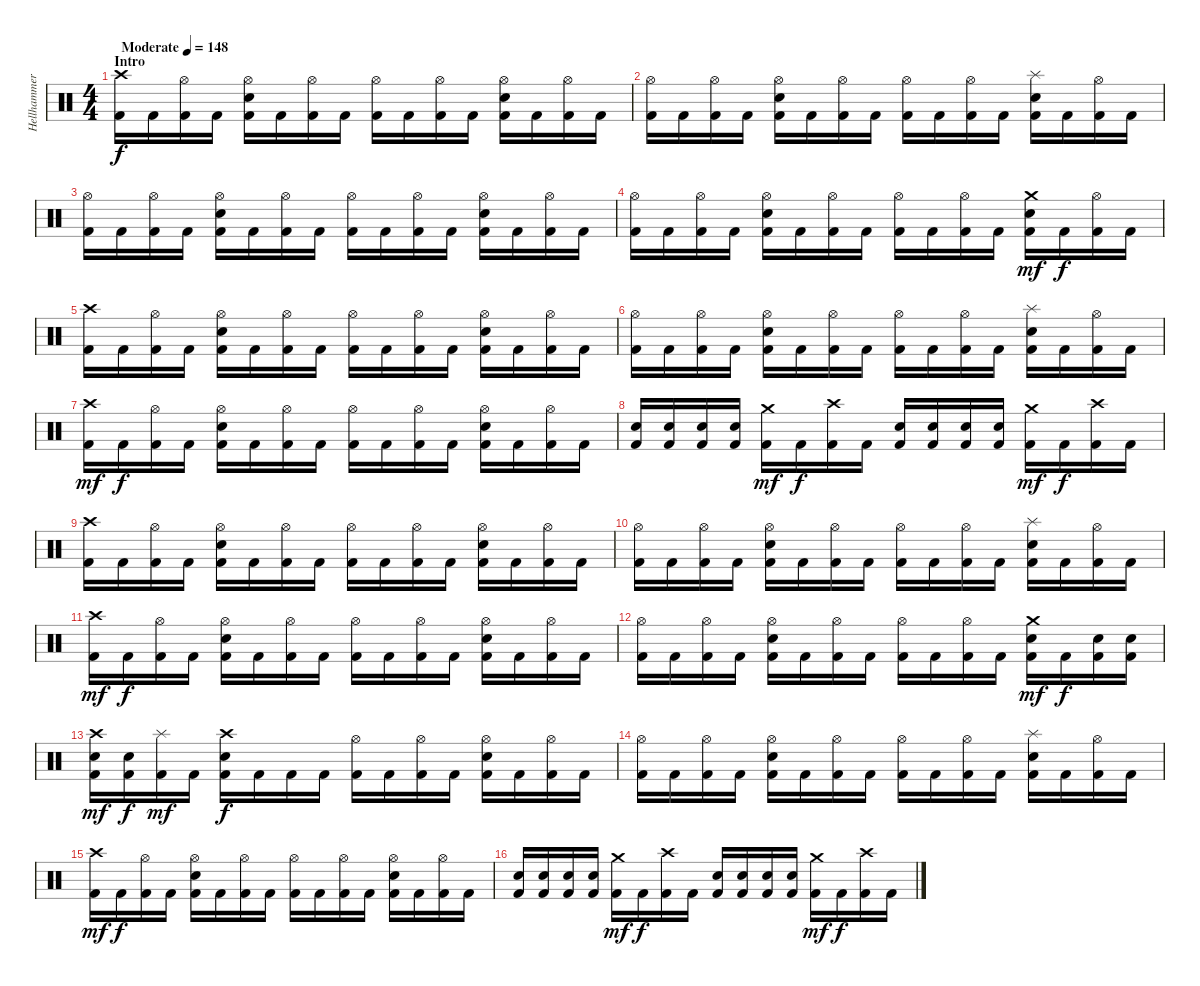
\track ("Hellhammer" "Hellhammer") {instrument percussion}
\staff {score}
\articulation defaults
\ts (4 4)
\section ("" "Intro")
\tempo (148 "Moderate")
\clef neutral
\ks c
("Crash high (hit)" "Kick (hit) 2").16{dy f} "Kick (hit) 2".16 ("Hi-Hat (open)" "Kick (hit) 2").16 "Kick (hit) 2".16 ("Hi-Hat (open)" "Snare (hit) 2" "Kick (hit) 2").16 "Kick (hit) 2".16 ("Hi-Hat (open)" "Kick (hit) 2").16 "Kick (hit) 2".16 ("Hi-Hat (open)" "Kick (hit) 2").16 "Kick (hit) 2".16 ("Hi-Hat (open)" "Kick (hit) 2").16 "Kick (hit) 2".16 ("Hi-Hat (open)" "Snare (hit) 2" "Kick (hit) 2").16 "Kick (hit) 2".16 ("Hi-Hat (open)" "Kick (hit) 2").16 "Kick (hit) 2".16 |
("Hi-Hat (open)" "Kick (hit) 2").16 "Kick (hit) 2".16 ("Hi-Hat (open)" "Kick (hit) 2").16 "Kick (hit) 2".16 ("Hi-Hat (open)" "Snare (hit) 2" "Kick (hit) 2").16 "Kick (hit) 2".16 ("Hi-Hat (open)" "Kick (hit) 2").16 "Kick (hit) 2".16 ("Hi-Hat (open)" "Kick (hit) 2").16 "Kick (hit) 2".16 ("Hi-Hat (open)" "Kick (hit) 2").16 "Kick (hit) 2".16 ("Splash (hit)" "Snare (hit) 2" "Kick (hit) 2").16 "Kick (hit) 2".16 ("Hi-Hat (open)" "Kick (hit) 2").16 "Kick (hit) 2".16 |
("Hi-Hat (open)" "Kick (hit) 2").16 "Kick (hit) 2".16 ("Hi-Hat (open)" "Kick (hit) 2").16 "Kick (hit) 2".16 ("Hi-Hat (open)" "Snare (hit) 2" "Kick (hit) 2").16 "Kick (hit) 2".16 ("Hi-Hat (open)" "Kick (hit) 2").16 "Kick (hit) 2".16 ("Hi-Hat (open)" "Kick (hit) 2").16 "Kick (hit) 2".16 ("Hi-Hat (open)" "Kick (hit) 2").16 "Kick (hit) 2".16 ("Hi-Hat (open)" "Snare (hit) 2" "Kick (hit) 2").16 "Kick (hit) 2".16 ("Hi-Hat (open)" "Kick (hit) 2").16 "Kick (hit) 2".16 |
("Hi-Hat (open)" "Kick (hit) 2").16 "Kick (hit) 2".16 ("Hi-Hat (open)" "Kick (hit) 2").16 "Kick (hit) 2".16 ("Hi-Hat (open)" "Snare (hit) 2" "Kick (hit) 2").16 "Kick (hit) 2".16 ("Hi-Hat (open)" "Kick (hit) 2").16 "Kick (hit) 2".16 ("Hi-Hat (open)" "Kick (hit) 2").16 "Kick (hit) 2".16 ("Hi-Hat (open)" "Kick (hit) 2").16 "Kick (hit) 2".16 ("Crash medium (hit)" "Snare (hit) 2" "Kick (hit) 2").16{dy mf} "Kick (hit) 2".16{dy f} ("Hi-Hat (open)" "Kick (hit) 2").16 "Kick (hit) 2".16 |
("Crash high (hit)" "Kick (hit) 2").16 "Kick (hit) 2".16 ("Hi-Hat (open)" "Kick (hit) 2").16 "Kick (hit) 2".16 ("Hi-Hat (open)" "Snare (hit) 2" "Kick (hit) 2").16 "Kick (hit) 2".16 ("Hi-Hat (open)" "Kick (hit) 2").16 "Kick (hit) 2".16 ("Hi-Hat (open)" "Kick (hit) 2").16 "Kick (hit) 2".16 ("Hi-Hat (open)" "Kick (hit) 2").16 "Kick (hit) 2".16 ("Hi-Hat (open)" "Snare (hit) 2" "Kick (hit) 2").16 "Kick (hit) 2".16 ("Hi-Hat (open)" "Kick (hit) 2").16 "Kick (hit) 2".16 |
("Hi-Hat (open)" "Kick (hit) 2").16 "Kick (hit) 2".16 ("Hi-Hat (open)" "Kick (hit) 2").16 "Kick (hit) 2".16 ("Hi-Hat (open)" "Snare (hit) 2" "Kick (hit) 2").16 "Kick (hit) 2".16 ("Hi-Hat (open)" "Kick (hit) 2").16 "Kick (hit) 2".16 ("Hi-Hat (open)" "Kick (hit) 2").16 "Kick (hit) 2".16 ("Hi-Hat (open)" "Kick (hit) 2").16 "Kick (hit) 2".16 ("Splash (hit)" "Snare (hit) 2" "Kick (hit) 2").16 "Kick (hit) 2".16 ("Hi-Hat (open)" "Kick (hit) 2").16 "Kick (hit) 2".16 |
("Crash high (hit)" "Kick (hit) 2").16{dy mf} "Kick (hit) 2".16{dy f} ("Hi-Hat (open)" "Kick (hit) 2").16 "Kick (hit) 2".16 ("Hi-Hat (open)" "Snare (hit) 2" "Kick (hit) 2").16 "Kick (hit) 2".16 ("Hi-Hat (open)" "Kick (hit) 2").16 "Kick (hit) 2".16 ("Hi-Hat (open)" "Kick (hit) 2").16 "Kick (hit) 2".16 ("Hi-Hat (open)" "Kick (hit) 2").16 "Kick (hit) 2".16 ("Hi-Hat (open)" "Snare (hit) 2" "Kick (hit) 2").16 "Kick (hit) 2".16 ("Hi-Hat (open)" "Kick (hit) 2").16 "Kick (hit) 2".16 |
("Snare (hit) 2" "Kick (hit) 2").16 ("Snare (hit) 2" "Kick (hit) 2").16 ("Snare (hit) 2" "Kick (hit) 2").16 ("Snare (hit) 2" "Kick (hit) 2").16 ("Crash medium (hit)" "Kick (hit) 2").16{dy mf} "Kick (hit) 2".16{dy f} ("Crash high (hit)" "Kick (hit) 2").16 "Kick (hit) 2".16 ("Snare (hit) 2" "Kick (hit) 2").16 ("Snare (hit) 2" "Kick (hit) 2").16 ("Snare (hit) 2" "Kick (hit) 2").16 ("Snare (hit) 2" "Kick (hit) 2").16 ("Crash medium (hit)" "Kick (hit) 2").16{dy mf} "Kick (hit) 2".16{dy f} ("Crash high (hit)" "Kick (hit) 2").16 "Kick (hit) 2".16 |
("Crash high (hit)" "Kick (hit) 2").16 "Kick (hit) 2".16 ("Hi-Hat (open)" "Kick (hit) 2").16 "Kick (hit) 2".16 ("Hi-Hat (open)" "Snare (hit) 2" "Kick (hit) 2").16 "Kick (hit) 2".16 ("Hi-Hat (open)" "Kick (hit) 2").16 "Kick (hit) 2".16 ("Hi-Hat (open)" "Kick (hit) 2").16 "Kick (hit) 2".16 ("Hi-Hat (open)" "Kick (hit) 2").16 "Kick (hit) 2".16 ("Hi-Hat (open)" "Snare (hit) 2" "Kick (hit) 2").16 "Kick (hit) 2".16 ("Hi-Hat (open)" "Kick (hit) 2").16 "Kick (hit) 2".16 |
("Hi-Hat (open)" "Kick (hit) 2").16 "Kick (hit) 2".16 ("Hi-Hat (open)" "Kick (hit) 2").16 "Kick (hit) 2".16 ("Hi-Hat (open)" "Snare (hit) 2" "Kick (hit) 2").16 "Kick (hit) 2".16 ("Hi-Hat (open)" "Kick (hit) 2").16 "Kick (hit) 2".16 ("Hi-Hat (open)" "Kick (hit) 2").16 "Kick (hit) 2".16 ("Hi-Hat (open)" "Kick (hit) 2").16 "Kick (hit) 2".16 ("Splash (hit)" "Snare (hit) 2" "Kick (hit) 2").16 "Kick (hit) 2".16 ("Hi-Hat (open)" "Kick (hit) 2").16 "Kick (hit) 2".16 |
("Crash high (hit)" "Kick (hit) 2").16{dy mf} "Kick (hit) 2".16{dy f} ("Hi-Hat (open)" "Kick (hit) 2").16 "Kick (hit) 2".16 ("Hi-Hat (open)" "Snare (hit) 2" "Kick (hit) 2").16 "Kick (hit) 2".16 ("Hi-Hat (open)" "Kick (hit) 2").16 "Kick (hit) 2".16 ("Hi-Hat (open)" "Kick (hit) 2").16 "Kick (hit) 2".16 ("Hi-Hat (open)" "Kick (hit) 2").16 "Kick (hit) 2".16 ("Hi-Hat (open)" "Snare (hit) 2" "Kick (hit) 2").16 "Kick (hit) 2".16 ("Hi-Hat (open)" "Kick (hit) 2").16 "Kick (hit) 2".16 |
("Hi-Hat (open)" "Kick (hit) 2").16 "Kick (hit) 2".16 ("Hi-Hat (open)" "Kick (hit) 2").16 "Kick (hit) 2".16 ("Hi-Hat (open)" "Snare (hit) 2" "Kick (hit) 2").16 "Kick (hit) 2".16 ("Hi-Hat (open)" "Kick (hit) 2").16 "Kick (hit) 2".16 ("Hi-Hat (open)" "Kick (hit) 2").16 "Kick (hit) 2".16 ("Hi-Hat (open)" "Kick (hit) 2").16 "Kick (hit) 2".16 ("Crash medium (hit)" "Snare (hit) 2" "Kick (hit) 2").16{dy mf} "Kick (hit) 2".16{dy f} ("Snare (hit) 2" "Kick (hit) 2").16 ("Snare (hit) 2" "Kick (hit) 2").16 |
("Crash high (hit)" "Snare (hit) 2" "Kick (hit) 2").16{dy mf} ("Snare (hit) 2" "Kick (hit) 2").16{dy f} ("Splash (hit)" "Kick (hit) 2").16{dy mf} "Kick (hit) 2".16 ("Crash high (hit)" "Snare (hit) 2" "Kick (hit) 2").16{dy f} "Kick (hit) 2".16 "Kick (hit) 2".16 "Kick (hit) 2".16 ("Hi-Hat (open)" "Kick (hit) 2").16 "Kick (hit) 2".16 ("Hi-Hat (open)" "Kick (hit) 2").16 "Kick (hit) 2".16 ("Hi-Hat (open)" "Snare (hit) 2" "Kick (hit) 2").16 "Kick (hit) 2".16 ("Hi-Hat (open)" "Kick (hit) 2").16 "Kick (hit) 2".16 |
("Hi-Hat (open)" "Kick (hit) 2").16 "Kick (hit) 2".16 ("Hi-Hat (open)" "Kick (hit) 2").16 "Kick (hit) 2".16 ("Hi-Hat (open)" "Snare (hit) 2" "Kick (hit) 2").16 "Kick (hit) 2".16 ("Hi-Hat (open)" "Kick (hit) 2").16 "Kick (hit) 2".16 ("Hi-Hat (open)" "Kick (hit) 2").16 "Kick (hit) 2".16 ("Hi-Hat (open)" "Kick (hit) 2").16 "Kick (hit) 2".16 ("Splash (hit)" "Snare (hit) 2" "Kick (hit) 2").16 "Kick (hit) 2".16 ("Hi-Hat (open)" "Kick (hit) 2").16 "Kick (hit) 2".16 |
("Crash high (hit)" "Kick (hit) 2").16{dy mf} "Kick (hit) 2".16{dy f} ("Hi-Hat (open)" "Kick (hit) 2").16 "Kick (hit) 2".16 ("Hi-Hat (open)" "Snare (hit) 2" "Kick (hit) 2").16 "Kick (hit) 2".16 ("Hi-Hat (open)" "Kick (hit) 2").16 "Kick (hit) 2".16 ("Hi-Hat (open)" "Kick (hit) 2").16 "Kick (hit) 2".16 ("Hi-Hat (open)" "Kick (hit) 2").16 "Kick (hit) 2".16 ("Hi-Hat (open)" "Snare (hit) 2" "Kick (hit) 2").16 "Kick (hit) 2".16 ("Hi-Hat (open)" "Kick (hit) 2").16 "Kick (hit) 2".16 |
("Snare (hit) 2" "Kick (hit) 2").16 ("Snare (hit) 2" "Kick (hit) 2").16 ("Snare (hit) 2" "Kick (hit) 2").16 ("Snare (hit) 2" "Kick (hit) 2").16 ("Crash medium (hit)" "Kick (hit) 2").16{dy mf} "Kick (hit) 2".16{dy f} ("Crash high (hit)" "Kick (hit) 2").16 "Kick (hit) 2".16 ("Snare (hit) 2" "Kick (hit) 2").16 ("Snare (hit) 2" "Kick (hit) 2").16 ("Snare (hit) 2" "Kick (hit) 2").16 ("Snare (hit) 2" "Kick (hit) 2").16 ("Crash medium (hit)" "Kick (hit) 2").16{dy mf} "Kick (hit) 2".16{dy f} ("Crash high (hit)" "Kick (hit) 2").16 "Kick (hit) 2".16
